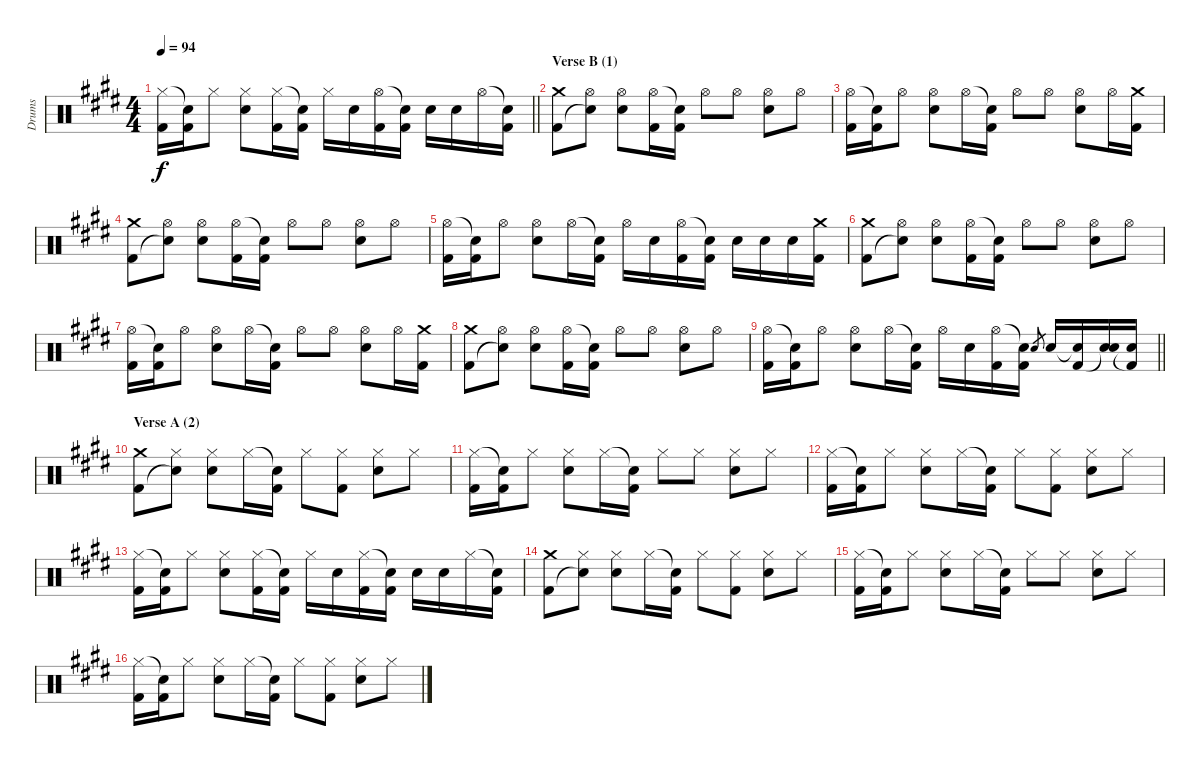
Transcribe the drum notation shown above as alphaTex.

\track ("Drums" "Drums") {instrument percussion}
\staff {score}
\articulation defaults
\ts (4 4)
\tempo 94
\clef neutral
\barLineRight lightlight
\ks c#minor
("Hi-Hat (closed)" "Kick (hit) 2").16{dy f} ("Snare (hit)"{t} "Kick (hit) 2").16 "Hi-Hat (closed)".8 ("Hi-Hat (closed)" "Electric Snare (hit)").8 ("Hi-Hat (closed)" "Kick (hit) 2").16 ("Snare (hit)"{t} "Kick (hit) 2").16 "Hi-Hat (closed)".16 "Electric Snare (hit)".16 ("Hi-Hat (open)" "Kick (hit) 2").16 ("Snare (hit)"{t} "Kick (hit) 2").16 "Electric Snare (hit)".16 "Electric Snare (hit)".16 "Hi-Hat (open)".16 ("Snare (hit)"{t} "Kick (hit) 2").16 |
\section ("" "Verse B (1)")
("Crash medium (hit)" "Kick (hit) 2").8 ("Hi-Hat (open)" "Snare (hit)"{t}).8 ("Hi-Hat (open)" "Electric Snare (hit)").8 ("Hi-Hat (open)" "Kick (hit) 2").16 ("Snare (hit)"{t} "Kick (hit) 2").16 "Hi-Hat (open)".8 "Hi-Hat (open)".8 ("Hi-Hat (open)" "Electric Snare (hit)").8 "Hi-Hat (open)".8 |
("Hi-Hat (open)" "Kick (hit) 2").16 ("Snare (hit)"{t} "Kick (hit) 2").16 "Hi-Hat (open)".8 ("Hi-Hat (open)" "Electric Snare (hit)").8 "Hi-Hat (open)".16 ("Snare (hit)"{t} "Kick (hit) 2").16 "Hi-Hat (open)".8 "Hi-Hat (open)".8 ("Hi-Hat (open)" "Electric Snare (hit)").8 "Hi-Hat (open)".16 ("Crash medium (hit)" "Kick (hit) 2").16 |
("Crash medium (hit)" "Kick (hit) 2").8 ("Hi-Hat (open)" "Snare (hit)"{t}).8 ("Hi-Hat (open)" "Electric Snare (hit)").8 ("Hi-Hat (open)" "Kick (hit) 2").16 ("Snare (hit)"{t} "Kick (hit) 2").16 "Hi-Hat (open)".8 "Hi-Hat (open)".8 ("Hi-Hat (open)" "Electric Snare (hit)").8 "Hi-Hat (open)".8 |
("Hi-Hat (open)" "Kick (hit) 2").16 ("Snare (hit)"{t} "Kick (hit) 2").16 "Hi-Hat (open)".8 ("Hi-Hat (open)" "Electric Snare (hit)").8 "Hi-Hat (open)".16 ("Snare (hit)"{t} "Kick (hit) 2").16 "Hi-Hat (open)".16 "Electric Snare (hit)".16 ("Hi-Hat (open)" "Kick (hit) 2").16 ("Snare (hit)"{t} "Kick (hit) 2").16 "Electric Snare (hit)".16 "Electric Snare (hit)".16 "Electric Snare (hit)".16 ("Crash medium (hit)" "Kick (hit) 2").16 |
("Crash medium (hit)" "Kick (hit) 2").8 ("Hi-Hat (open)" "Snare (hit)"{t}).8 ("Hi-Hat (open)" "Electric Snare (hit)").8 ("Hi-Hat (open)" "Kick (hit) 2").16 ("Snare (hit)"{t} "Kick (hit) 2").16 "Hi-Hat (open)".8 "Hi-Hat (open)".8 ("Hi-Hat (open)" "Electric Snare (hit)").8 "Hi-Hat (open)".8 |
("Hi-Hat (open)" "Kick (hit) 2").16 ("Snare (hit)"{t} "Kick (hit) 2").16 "Hi-Hat (open)".8 ("Hi-Hat (open)" "Electric Snare (hit)").8 "Hi-Hat (open)".16 ("Snare (hit)"{t} "Kick (hit) 2").16 "Hi-Hat (open)".8 "Hi-Hat (open)".8 ("Hi-Hat (open)" "Electric Snare (hit)").8 "Hi-Hat (open)".16 ("Crash medium (hit)" "Kick (hit) 2").16 |
("Crash medium (hit)" "Kick (hit) 2").8 ("Hi-Hat (open)" "Snare (hit)"{t}).8 ("Hi-Hat (open)" "Electric Snare (hit)").8 ("Hi-Hat (open)" "Kick (hit) 2").16 ("Snare (hit)"{t} "Kick (hit) 2").16 "Hi-Hat (open)".8 "Hi-Hat (open)".8 ("Hi-Hat (open)" "Electric Snare (hit)").8 "Hi-Hat (open)".8 |
\barLineRight lightlight
("Hi-Hat (open)" "Kick (hit) 2").16 ("Snare (hit)"{t} "Kick (hit) 2").16 "Hi-Hat (open)".8 ("Hi-Hat (open)" "Electric Snare (hit)").8 "Hi-Hat (open)".16 ("Snare (hit)"{t} "Kick (hit) 2").16 "Hi-Hat (open)".16 "Electric Snare (hit)".16 ("Hi-Hat (open)" "Kick (hit) 2").16 ("Snare (hit)"{t} "Kick (hit) 2").16 "Electric Snare (hit)".8{gr} "Electric Snare (hit)".16 ("Electric Snare (hit)"{t} "Kick (hit) 2").16 ("Electric Snare (hit)" "Snare (hit)"{t}).16 ("Electric Snare (hit)" "Kick (hit) 2"{t}).16 |
\section ("" "Verse A (2)")
("Crash medium (hit)" "Kick (hit) 2").8 ("Hi-Hat (closed)" "Snare (hit)"{t}).8 ("Hi-Hat (closed)" "Electric Snare (hit)").8 "Hi-Hat (closed)".16 ("Snare (hit)"{t} "Kick (hit) 2").16 "Hi-Hat (closed)".8 ("Hi-Hat (closed)" "Kick (hit) 2").8 ("Hi-Hat (closed)" "Electric Snare (hit)").8 "Hi-Hat (closed)".8 |
("Hi-Hat (closed)" "Kick (hit) 2").16 ("Snare (hit)"{t} "Kick (hit) 2").16 "Hi-Hat (closed)".8 ("Hi-Hat (closed)" "Electric Snare (hit)").8 "Hi-Hat (closed)".16 ("Snare (hit)"{t} "Kick (hit) 2").16 "Hi-Hat (closed)".8 "Hi-Hat (closed)".8 ("Hi-Hat (closed)" "Electric Snare (hit)").8 "Hi-Hat (closed)".8 |
("Hi-Hat (closed)" "Kick (hit) 2").16 ("Snare (hit)"{t} "Kick (hit) 2").16 "Hi-Hat (closed)".8 ("Hi-Hat (closed)" "Electric Snare (hit)").8 "Hi-Hat (closed)".16 ("Snare (hit)"{t} "Kick (hit) 2").16 "Hi-Hat (closed)".8 ("Hi-Hat (closed)" "Kick (hit) 2").8 ("Hi-Hat (closed)" "Electric Snare (hit)").8 "Hi-Hat (closed)".8 |
("Hi-Hat (closed)" "Kick (hit) 2").16 ("Snare (hit)"{t} "Kick (hit) 2").16 "Hi-Hat (closed)".8 ("Hi-Hat (closed)" "Electric Snare (hit)").8 ("Hi-Hat (closed)" "Kick (hit) 2").16 ("Snare (hit)"{t} "Kick (hit) 2").16 "Hi-Hat (closed)".16 "Electric Snare (hit)".16 ("Hi-Hat (closed)" "Kick (hit) 2").16 ("Snare (hit)"{t} "Kick (hit) 2").16 "Electric Snare (hit)".16 "Electric Snare (hit)".16 "Hi-Hat (closed)".16 ("Snare (hit)"{t} "Kick (hit) 2").16 |
("Crash medium (hit)" "Kick (hit) 2").8 ("Hi-Hat (closed)" "Snare (hit)"{t}).8 ("Hi-Hat (closed)" "Electric Snare (hit)").8 "Hi-Hat (closed)".16 ("Snare (hit)"{t} "Kick (hit) 2").16 "Hi-Hat (closed)".8 ("Hi-Hat (closed)" "Kick (hit) 2").8 ("Hi-Hat (closed)" "Electric Snare (hit)").8 "Hi-Hat (closed)".8 |
("Hi-Hat (closed)" "Kick (hit) 2").16 ("Snare (hit)"{t} "Kick (hit) 2").16 "Hi-Hat (closed)".8 ("Hi-Hat (closed)" "Electric Snare (hit)").8 "Hi-Hat (closed)".16 ("Snare (hit)"{t} "Kick (hit) 2").16 "Hi-Hat (closed)".8 "Hi-Hat (closed)".8 ("Hi-Hat (closed)" "Electric Snare (hit)").8 "Hi-Hat (closed)".8 |
("Hi-Hat (closed)" "Kick (hit) 2").16 ("Snare (hit)"{t} "Kick (hit) 2").16 "Hi-Hat (closed)".8 ("Hi-Hat (closed)" "Electric Snare (hit)").8 "Hi-Hat (closed)".16 ("Snare (hit)"{t} "Kick (hit) 2").16 "Hi-Hat (closed)".8 ("Hi-Hat (closed)" "Kick (hit) 2").8 ("Hi-Hat (closed)" "Electric Snare (hit)").8 "Hi-Hat (closed)".8
